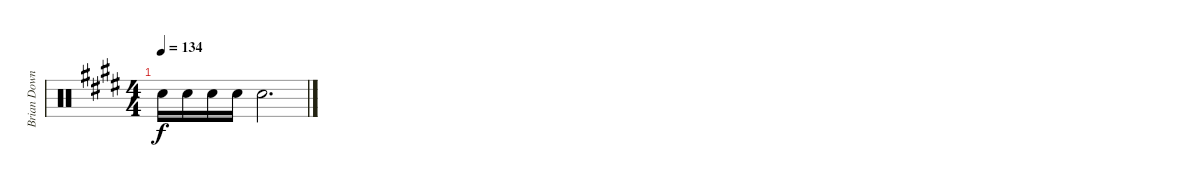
\track ("Brian Downey" "Brian Down") {instrument percussion}
\staff {score}
\articulation defaults
\ts (4 4)
\tempo 134
\clef neutral
\ks e "Electric Snare (hit)".16{dy f} "Electric Snare (hit)".16 "Electric Snare (hit)".16 "Electric Snare (hit)".16 "Electric Snare (hit)".2{d}
